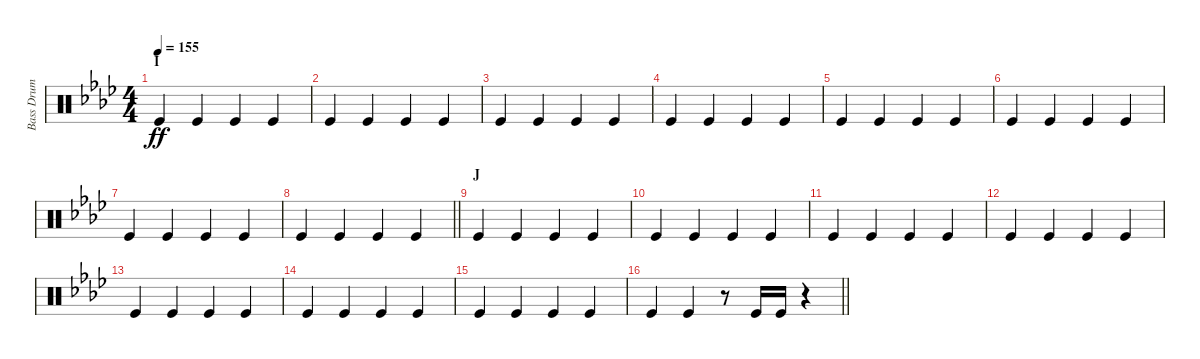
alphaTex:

\track ("Bass Drum" "Bass Drum") {instrument percussion}
\staff {score}
\articulation defaults
\ts (4 4)
\section ("" "I")
\tempo 155
\clef neutral
\ks ab "Kick (hit)".4{dy ff} "Kick (hit)".4 "Kick (hit)".4 "Kick (hit)".4
|
"Kick (hit)".4 "Kick (hit)".4 "Kick (hit)".4 "Kick (hit)".4 |
"Kick (hit)".4 "Kick (hit)".4 "Kick (hit)".4 "Kick (hit)".4 |
"Kick (hit)".4 "Kick (hit)".4 "Kick (hit)".4 "Kick (hit)".4 |
"Kick (hit)".4 "Kick (hit)".4 "Kick (hit)".4 "Kick (hit)".4 |
"Kick (hit)".4 "Kick (hit)".4 "Kick (hit)".4 "Kick (hit)".4 |
"Kick (hit)".4 "Kick (hit)".4 "Kick (hit)".4 "Kick (hit)".4 |
\barLineRight lightlight "Kick (hit)".4 "Kick (hit)".4 "Kick (hit)".4 "Kick (hit)".4
|
\section ("" "J")
"Kick (hit)".4 "Kick (hit)".4 "Kick (hit)".4 "Kick (hit)".4 |
"Kick (hit)".4 "Kick (hit)".4 "Kick (hit)".4 "Kick (hit)".4 |
"Kick (hit)".4 "Kick (hit)".4 "Kick (hit)".4 "Kick (hit)".4 |
"Kick (hit)".4 "Kick (hit)".4 "Kick (hit)".4 "Kick (hit)".4 |
"Kick (hit)".4 "Kick (hit)".4 "Kick (hit)".4 "Kick (hit)".4 |
"Kick (hit)".4 "Kick (hit)".4 "Kick (hit)".4 "Kick (hit)".4 |
"Kick (hit)".4 "Kick (hit)".4 "Kick (hit)".4 "Kick (hit)".4 |
\barLineRight lightlight "Kick (hit)".4 "Kick (hit)".4
r.8 "Kick (hit)".16 "Kick (hit)".16 r.4
